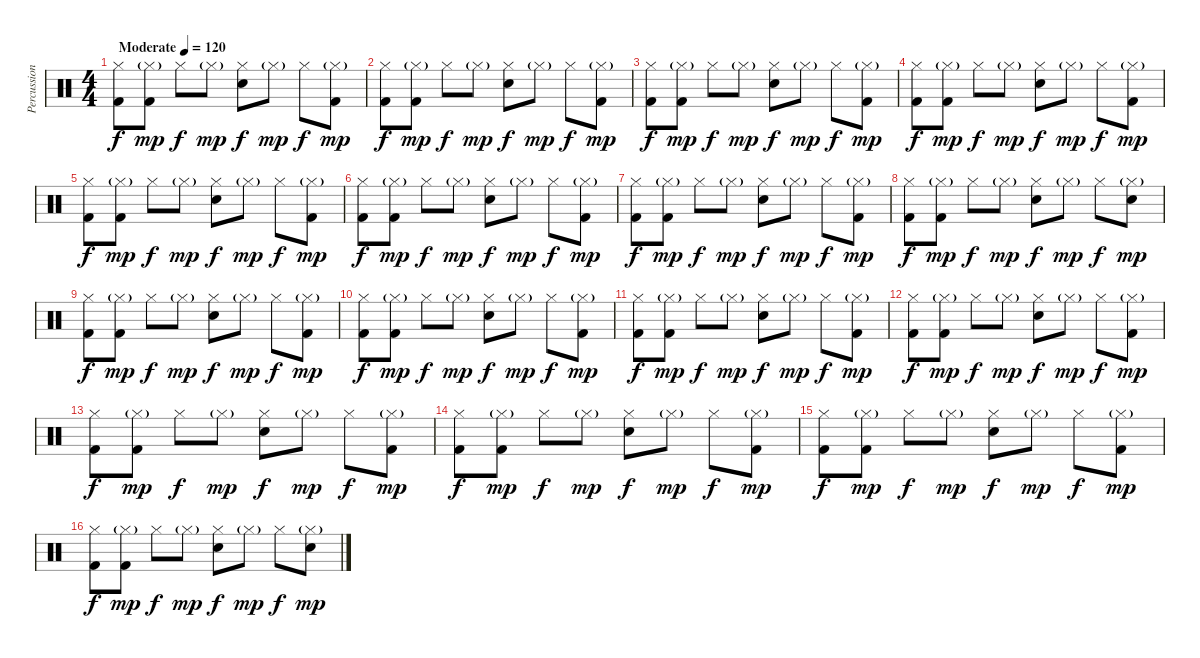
\track ("Percussions" "Percussion") {instrument percussion}
\staff {score}
\articulation defaults
\ts (4 4)
\tempo (120 "Moderate")
\clef neutral
\ks c
("Hi-Hat (closed)" "Kick (hit) 2").8{dy f} ("Hi-Hat (closed)"{g} "Kick (hit) 2").8{dy mp} "Hi-Hat (closed)".8{dy f} "Hi-Hat (closed)"{g}.8{dy mp} ("Hi-Hat (closed)" "Snare (hit) 2").8{dy f} "Hi-Hat (closed)"{g}.8{dy mp} "Hi-Hat (closed)".8{dy f} ("Hi-Hat (closed)"{g} "Kick (hit) 2").8{dy mp} |
("Hi-Hat (closed)" "Kick (hit) 2").8{dy f} ("Hi-Hat (closed)"{g} "Kick (hit) 2").8{dy mp} "Hi-Hat (closed)".8{dy f} "Hi-Hat (closed)"{g}.8{dy mp} ("Hi-Hat (closed)" "Snare (hit) 2").8{dy f} "Hi-Hat (closed)"{g}.8{dy mp} "Hi-Hat (closed)".8{dy f} ("Hi-Hat (closed)"{g} "Kick (hit) 2").8{dy mp} |
("Hi-Hat (closed)" "Kick (hit) 2").8{dy f} ("Hi-Hat (closed)"{g} "Kick (hit) 2").8{dy mp} "Hi-Hat (closed)".8{dy f} "Hi-Hat (closed)"{g}.8{dy mp} ("Hi-Hat (closed)" "Snare (hit) 2").8{dy f} "Hi-Hat (closed)"{g}.8{dy mp} "Hi-Hat (closed)".8{dy f} ("Hi-Hat (closed)"{g} "Kick (hit) 2").8{dy mp} |
("Hi-Hat (closed)" "Kick (hit) 2").8{dy f} ("Hi-Hat (closed)"{g} "Kick (hit) 2").8{dy mp} "Hi-Hat (closed)".8{dy f} "Hi-Hat (closed)"{g}.8{dy mp} ("Hi-Hat (closed)" "Snare (hit) 2").8{dy f} "Hi-Hat (closed)"{g}.8{dy mp} "Hi-Hat (closed)".8{dy f} ("Hi-Hat (closed)"{g} "Kick (hit) 2").8{dy mp} |
("Hi-Hat (closed)" "Kick (hit) 2").8{dy f} ("Hi-Hat (closed)"{g} "Kick (hit) 2").8{dy mp} "Hi-Hat (closed)".8{dy f} "Hi-Hat (closed)"{g}.8{dy mp} ("Hi-Hat (closed)" "Snare (hit) 2").8{dy f} "Hi-Hat (closed)"{g}.8{dy mp} "Hi-Hat (closed)".8{dy f} ("Hi-Hat (closed)"{g} "Kick (hit) 2").8{dy mp} |
("Hi-Hat (closed)" "Kick (hit) 2").8{dy f} ("Hi-Hat (closed)"{g} "Kick (hit) 2").8{dy mp} "Hi-Hat (closed)".8{dy f} "Hi-Hat (closed)"{g}.8{dy mp} ("Hi-Hat (closed)" "Snare (hit) 2").8{dy f} "Hi-Hat (closed)"{g}.8{dy mp} "Hi-Hat (closed)".8{dy f} ("Hi-Hat (closed)"{g} "Kick (hit) 2").8{dy mp} |
("Hi-Hat (closed)" "Kick (hit) 2").8{dy f} ("Hi-Hat (closed)"{g} "Kick (hit) 2").8{dy mp} "Hi-Hat (closed)".8{dy f} "Hi-Hat (closed)"{g}.8{dy mp} ("Hi-Hat (closed)" "Snare (hit) 2").8{dy f} "Hi-Hat (closed)"{g}.8{dy mp} "Hi-Hat (closed)".8{dy f} ("Hi-Hat (closed)"{g} "Kick (hit) 2").8{dy mp} |
("Hi-Hat (closed)" "Kick (hit) 2").8{dy f} ("Hi-Hat (closed)"{g} "Kick (hit) 2").8{dy mp} "Hi-Hat (closed)".8{dy f} "Hi-Hat (closed)"{g}.8{dy mp} ("Hi-Hat (closed)" "Snare (hit) 2").8{dy f} "Hi-Hat (closed)"{g}.8{dy mp} "Hi-Hat (closed)".8{dy f} ("Hi-Hat (closed)"{g} "Snare (hit) 2").8{dy mp} |
("Hi-Hat (closed)" "Kick (hit) 2").8{dy f} ("Hi-Hat (closed)"{g} "Kick (hit) 2").8{dy mp} "Hi-Hat (closed)".8{dy f} "Hi-Hat (closed)"{g}.8{dy mp} ("Hi-Hat (closed)" "Snare (hit) 2").8{dy f} "Hi-Hat (closed)"{g}.8{dy mp} "Hi-Hat (closed)".8{dy f} ("Hi-Hat (closed)"{g} "Kick (hit) 2").8{dy mp} |
("Hi-Hat (closed)" "Kick (hit) 2").8{dy f} ("Hi-Hat (closed)"{g} "Kick (hit) 2").8{dy mp} "Hi-Hat (closed)".8{dy f} "Hi-Hat (closed)"{g}.8{dy mp} ("Hi-Hat (closed)" "Snare (hit) 2").8{dy f} "Hi-Hat (closed)"{g}.8{dy mp} "Hi-Hat (closed)".8{dy f} ("Hi-Hat (closed)"{g} "Kick (hit) 2").8{dy mp} |
("Hi-Hat (closed)" "Kick (hit) 2").8{dy f} ("Hi-Hat (closed)"{g} "Kick (hit) 2").8{dy mp} "Hi-Hat (closed)".8{dy f} "Hi-Hat (closed)"{g}.8{dy mp} ("Hi-Hat (closed)" "Snare (hit) 2").8{dy f} "Hi-Hat (closed)"{g}.8{dy mp} "Hi-Hat (closed)".8{dy f} ("Hi-Hat (closed)"{g} "Kick (hit) 2").8{dy mp} |
("Hi-Hat (closed)" "Kick (hit) 2").8{dy f} ("Hi-Hat (closed)"{g} "Kick (hit) 2").8{dy mp} "Hi-Hat (closed)".8{dy f} "Hi-Hat (closed)"{g}.8{dy mp} ("Hi-Hat (closed)" "Snare (hit) 2").8{dy f} "Hi-Hat (closed)"{g}.8{dy mp} "Hi-Hat (closed)".8{dy f} ("Hi-Hat (closed)"{g} "Kick (hit) 2").8{dy mp} |
("Hi-Hat (closed)" "Kick (hit) 2").8{dy f} ("Hi-Hat (closed)"{g} "Kick (hit) 2").8{dy mp} "Hi-Hat (closed)".8{dy f} "Hi-Hat (closed)"{g}.8{dy mp} ("Hi-Hat (closed)" "Snare (hit) 2").8{dy f} "Hi-Hat (closed)"{g}.8{dy mp} "Hi-Hat (closed)".8{dy f} ("Hi-Hat (closed)"{g} "Kick (hit) 2").8{dy mp} |
("Hi-Hat (closed)" "Kick (hit) 2").8{dy f} ("Hi-Hat (closed)"{g} "Kick (hit) 2").8{dy mp} "Hi-Hat (closed)".8{dy f} "Hi-Hat (closed)"{g}.8{dy mp} ("Hi-Hat (closed)" "Snare (hit) 2").8{dy f} "Hi-Hat (closed)"{g}.8{dy mp} "Hi-Hat (closed)".8{dy f} ("Hi-Hat (closed)"{g} "Kick (hit) 2").8{dy mp} |
("Hi-Hat (closed)" "Kick (hit) 2").8{dy f} ("Hi-Hat (closed)"{g} "Kick (hit) 2").8{dy mp} "Hi-Hat (closed)".8{dy f} "Hi-Hat (closed)"{g}.8{dy mp} ("Hi-Hat (closed)" "Snare (hit) 2").8{dy f} "Hi-Hat (closed)"{g}.8{dy mp} "Hi-Hat (closed)".8{dy f} ("Hi-Hat (closed)"{g} "Kick (hit) 2").8{dy mp} |
("Hi-Hat (closed)" "Kick (hit) 2").8{dy f} ("Hi-Hat (closed)"{g} "Kick (hit) 2").8{dy mp} "Hi-Hat (closed)".8{dy f} "Hi-Hat (closed)"{g}.8{dy mp} ("Hi-Hat (closed)" "Snare (hit) 2").8{dy f} "Hi-Hat (closed)"{g}.8{dy mp} "Hi-Hat (closed)".8{dy f} ("Hi-Hat (closed)"{g} "Snare (hit) 2").8{dy mp}
